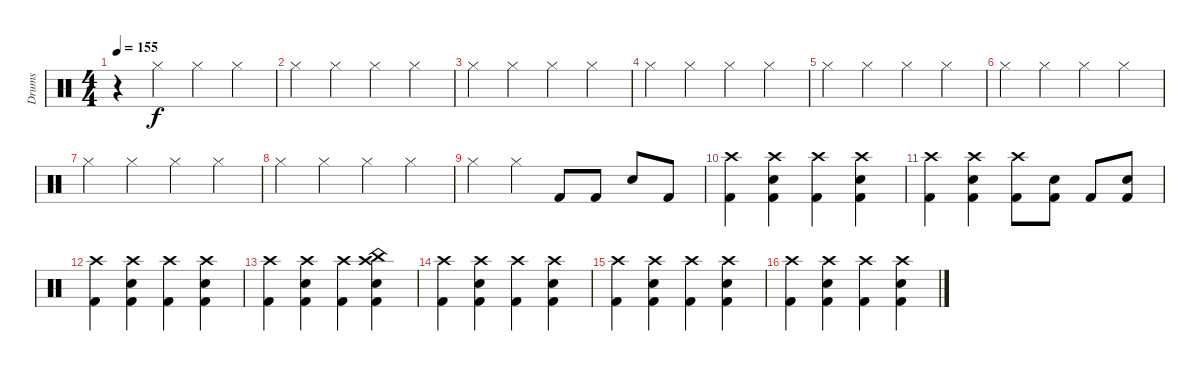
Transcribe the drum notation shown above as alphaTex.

\track ("Drums" "Drums") {instrument percussion}
\staff {score}
\articulation defaults
\ts (4 4)
\tempo 155
\clef neutral
\ks c
r.4{dy f} "Hi-Hat (closed)".4 "Hi-Hat (closed)".4 "Hi-Hat (closed)".4 |
"Hi-Hat (closed)".4 "Hi-Hat (closed)".4 "Hi-Hat (closed)".4 "Hi-Hat (closed)".4 |
"Hi-Hat (closed)".4 "Hi-Hat (closed)".4 "Hi-Hat (closed)".4 "Hi-Hat (closed)".4 |
"Hi-Hat (closed)".4 "Hi-Hat (closed)".4 "Hi-Hat (closed)".4 "Hi-Hat (closed)".4 |
"Hi-Hat (closed)".4 "Hi-Hat (closed)".4 "Hi-Hat (closed)".4 "Hi-Hat (closed)".4 |
"Hi-Hat (closed)".4 "Hi-Hat (closed)".4 "Hi-Hat (closed)".4 "Hi-Hat (closed)".4 |
"Hi-Hat (closed)".4 "Hi-Hat (closed)".4 "Hi-Hat (closed)".4 "Hi-Hat (closed)".4 |
"Hi-Hat (closed)".4 "Hi-Hat (closed)".4 "Hi-Hat (closed)".4 "Hi-Hat (closed)".4 |
"Hi-Hat (closed)".4 "Hi-Hat (closed)".4 "Kick (hit) 2".8 "Kick (hit) 2".8 "Snare (hit) 2".8 "Kick (hit) 2".8 |
("Crash high (hit)" "Kick (hit) 2").4 ("Crash high (hit)" "Snare (hit) 2" "Kick (hit) 2").4 ("Crash high (hit)" "Kick (hit) 2").4 ("Crash high (hit)" "Snare (hit) 2" "Kick (hit) 2").4 |
("Crash high (hit)" "Kick (hit) 2").4 ("Crash high (hit)" "Snare (hit) 2" "Kick (hit) 2").4 ("Crash high (hit)" "Kick (hit) 2").8 ("Snare (hit) 2" "Kick (hit) 2").8 "Kick (hit) 2".8 ("Snare (hit) 2" "Kick (hit) 2").8 |
("Crash high (hit)" "Kick (hit) 2").4 ("Crash high (hit)" "Snare (hit) 2" "Kick (hit) 2").4 ("Crash high (hit)" "Kick (hit) 2").4 ("Crash high (hit)" "Snare (hit) 2" "Kick (hit) 2").4 |
("Crash high (hit)" "Kick (hit) 2").4 ("Crash high (hit)" "Snare (hit) 2" "Kick (hit) 2").4 ("Crash high (hit)" "Kick (hit) 2").4 ("China (hit)" "Crash high (hit)" "Snare (hit) 2" "Kick (hit) 2").4 |
("Crash high (hit)" "Kick (hit) 2").4 ("Crash high (hit)" "Snare (hit) 2" "Kick (hit) 2").4 ("Crash high (hit)" "Kick (hit) 2").4 ("Crash high (hit)" "Snare (hit) 2" "Kick (hit) 2").4 |
("Crash high (hit)" "Kick (hit) 2").4 ("Crash high (hit)" "Snare (hit) 2" "Kick (hit) 2").4 ("Crash high (hit)" "Kick (hit) 2").4 ("Crash high (hit)" "Snare (hit) 2" "Kick (hit) 2").4 |
("Crash high (hit)" "Kick (hit) 2").4 ("Crash high (hit)" "Snare (hit) 2" "Kick (hit) 2").4 ("Crash high (hit)" "Kick (hit) 2").4 ("Crash high (hit)" "Snare (hit) 2" "Kick (hit) 2").4
